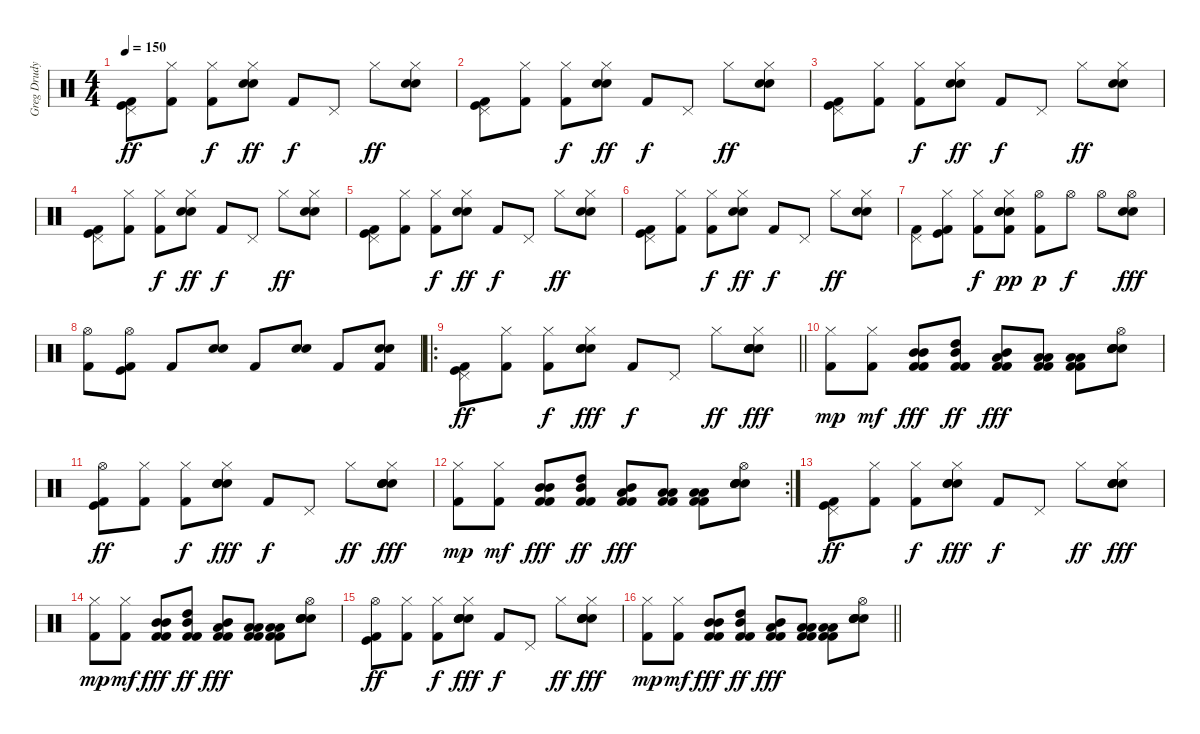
\track ("Greg Drudy" "Greg Drudy") {instrument percussion}
\staff {score}
\articulation defaults
\ts (4 4)
\tempo 150
\clef neutral
\ks c
("Pedal Hi-Hat (hit)" "Kick (hit)" "Kick (hit) 2").8{dy ff} ("Hi-Hat (closed)" "Kick (hit) 2").8 ("Hi-Hat (closed)" "Kick (hit) 2").8{dy f} ("Hi-Hat (closed)" "Snare (hit) 2" "Snare (hit) 2").8{dy ff} "Kick (hit) 2".8{dy f} "Pedal Hi-Hat (hit)".8 "Hi-Hat (closed)".8{dy ff} ("Hi-Hat (closed)" "Snare (hit) 2" "Snare (hit) 2").8 |
("Pedal Hi-Hat (hit)" "Kick (hit)" "Kick (hit) 2").8 ("Hi-Hat (closed)" "Kick (hit) 2").8 ("Hi-Hat (closed)" "Kick (hit) 2").8{dy f} ("Hi-Hat (closed)" "Snare (hit) 2" "Snare (hit) 2").8{dy ff} "Kick (hit) 2".8{dy f} "Pedal Hi-Hat (hit)".8 "Hi-Hat (closed)".8{dy ff} ("Hi-Hat (closed)" "Snare (hit) 2" "Snare (hit) 2").8 |
("Pedal Hi-Hat (hit)" "Kick (hit)" "Kick (hit) 2").8 ("Hi-Hat (closed)" "Kick (hit) 2").8 ("Hi-Hat (closed)" "Kick (hit) 2").8{dy f} ("Hi-Hat (closed)" "Snare (hit) 2" "Snare (hit) 2").8{dy ff} "Kick (hit) 2".8{dy f} "Pedal Hi-Hat (hit)".8 "Hi-Hat (closed)".8{dy ff} ("Hi-Hat (closed)" "Snare (hit) 2" "Snare (hit) 2").8 |
("Pedal Hi-Hat (hit)" "Kick (hit)" "Kick (hit) 2").8 ("Hi-Hat (closed)" "Kick (hit) 2").8 ("Hi-Hat (closed)" "Kick (hit) 2").8{dy f} ("Hi-Hat (closed)" "Snare (hit) 2" "Snare (hit) 2").8{dy ff} "Kick (hit) 2".8{dy f} "Pedal Hi-Hat (hit)".8 "Hi-Hat (closed)".8{dy ff} ("Hi-Hat (closed)" "Snare (hit) 2" "Snare (hit) 2").8 |
("Pedal Hi-Hat (hit)" "Kick (hit)" "Kick (hit) 2").8 ("Hi-Hat (closed)" "Kick (hit) 2").8 ("Hi-Hat (closed)" "Kick (hit) 2").8{dy f} ("Hi-Hat (closed)" "Snare (hit) 2" "Snare (hit) 2").8{dy ff} "Kick (hit) 2".8{dy f} "Pedal Hi-Hat (hit)".8 "Hi-Hat (closed)".8{dy ff} ("Hi-Hat (closed)" "Snare (hit) 2" "Snare (hit) 2").8 |
("Pedal Hi-Hat (hit)" "Kick (hit)" "Kick (hit) 2").8 ("Hi-Hat (closed)" "Kick (hit) 2").8 ("Hi-Hat (closed)" "Kick (hit) 2").8{dy f} ("Hi-Hat (closed)" "Snare (hit) 2" "Snare (hit) 2").8{dy ff} "Kick (hit) 2".8{dy f} "Pedal Hi-Hat (hit)".8 "Hi-Hat (closed)".8{dy ff} ("Hi-Hat (closed)" "Snare (hit) 2" "Snare (hit) 2").8 |
("Pedal Hi-Hat (hit)" "Kick (hit) 2").8 ("Hi-Hat (closed)" "Kick (hit)" "Kick (hit) 2").8 ("Hi-Hat (closed)" "Kick (hit) 2").8{dy f} ("Hi-Hat (closed)" "Snare (hit) 2" "Snare (hit) 2" "Electric Snare (hit)" "Kick (hit) 2").8{dy pp} ("Hi-Hat (open)" "Kick (hit) 2").8{dy p} "Hi-Hat (open)".8{dy f} "Hi-Hat (open)".8 ("Hi-Hat (open)" "Snare (hit) 2" "Snare (hit) 2").8{dy fff} |
("Hi-Hat (open)" "Kick (hit) 2").8 ("Hi-Hat (open)" "Kick (hit)" "Kick (hit) 2").8 "Kick (hit) 2".8 ("Snare (hit) 2" "Snare (hit) 2").8 "Kick (hit) 2".8 ("Snare (hit) 2" "Snare (hit) 2").8 "Kick (hit) 2".8 ("Snare (hit) 2" "Snare (hit) 2" "Kick (hit) 2").8 |
\ro
\barLineRight lightlight
("Pedal Hi-Hat (hit)" "Kick (hit)" "Kick (hit) 2").8{dy ff} ("Hi-Hat (closed)" "Kick (hit) 2").8 ("Hi-Hat (closed)" "Kick (hit) 2").8{dy f} ("Hi-Hat (closed)" "Snare (hit) 2" "Snare (hit) 2" "Electric Snare (hit)").8{dy fff} "Kick (hit) 2".8{dy f} "Pedal Hi-Hat (hit)".8 "Hi-Hat (closed)".8{dy ff} ("Hi-Hat (closed)" "Snare (hit) 2" "Snare (hit) 2" "Electric Snare (hit)" "Electric Snare (hit)").8{dy fff} |
\section ("" "")
("Hi-Hat (closed)" "Kick (hit) 2").8{dy mp} ("Hi-Hat (closed)" "Kick (hit) 2").8{dy mf} ("Mid Tom (hit)" "Mid Tom (hit)" "Kick (hit) 2" "Kick (hit) 2").8{dy fff} ("High Tom (hit)" "Mid Tom (hit)" "Kick (hit) 2" "Kick (hit) 2").8{dy ff} ("Mid Tom (hit)" "Low Tom (hit)" "Kick (hit) 2" "Kick (hit) 2").8{dy fff} ("Low Tom (hit)" "Low Tom (hit)" "Kick (hit) 2" "Kick (hit) 2").8 ("Low Tom (hit)" "Low Tom (hit)" "Kick (hit) 2" "Kick (hit) 2").8 ("Hi-Hat (open)" "Snare (hit) 2" "Snare (hit) 2" "Electric Snare (hit)" "Electric Snare (hit)").8 |
("Hi-Hat (open)" "Kick (hit)" "Kick (hit) 2").8{dy ff} ("Hi-Hat (closed)" "Kick (hit) 2").8 ("Hi-Hat (closed)" "Kick (hit) 2").8{dy f} ("Hi-Hat (closed)" "Snare (hit) 2" "Snare (hit) 2" "Electric Snare (hit)" "Electric Snare (hit)").8{dy fff} "Kick (hit) 2".8{dy f} "Pedal Hi-Hat (hit)".8 "Hi-Hat (closed)".8{dy ff} ("Hi-Hat (closed)" "Snare (hit) 2" "Snare (hit) 2" "Electric Snare (hit)" "Electric Snare (hit)").8{dy fff} |
\rc 2
("Hi-Hat (closed)" "Kick (hit) 2").8{dy mp} ("Hi-Hat (closed)" "Kick (hit) 2").8{dy mf} ("Mid Tom (hit)" "Mid Tom (hit)" "Kick (hit) 2" "Kick (hit) 2").8{dy fff} ("High Tom (hit)" "Mid Tom (hit)" "Kick (hit) 2" "Kick (hit) 2").8{dy ff} ("Mid Tom (hit)" "Low Tom (hit)" "Kick (hit) 2" "Kick (hit) 2").8{dy fff} ("Low Tom (hit)" "Low Tom (hit)" "Kick (hit) 2" "Kick (hit) 2").8 ("Low Tom (hit)" "Low Tom (hit)" "Kick (hit) 2" "Kick (hit) 2").8 ("Hi-Hat (open)" "Snare (hit) 2" "Snare (hit) 2" "Electric Snare (hit)" "Electric Snare (hit)").8 |
("Pedal Hi-Hat (hit)" "Kick (hit)" "Kick (hit) 2").8{dy ff} ("Hi-Hat (closed)" "Kick (hit) 2").8 ("Hi-Hat (closed)" "Kick (hit) 2").8{dy f} ("Hi-Hat (closed)" "Snare (hit) 2" "Snare (hit) 2" "Electric Snare (hit)").8{dy fff} "Kick (hit) 2".8{dy f} "Pedal Hi-Hat (hit)".8 "Hi-Hat (closed)".8{dy ff} ("Hi-Hat (closed)" "Snare (hit) 2" "Snare (hit) 2" "Electric Snare (hit)" "Electric Snare (hit)").8{dy fff} |
("Hi-Hat (closed)" "Kick (hit) 2").8{dy mp} ("Hi-Hat (closed)" "Kick (hit) 2").8{dy mf} ("Mid Tom (hit)" "Mid Tom (hit)" "Kick (hit) 2" "Kick (hit) 2").8{dy fff} ("High Tom (hit)" "Mid Tom (hit)" "Kick (hit) 2" "Kick (hit) 2").8{dy ff} ("Mid Tom (hit)" "Low Tom (hit)" "Kick (hit) 2" "Kick (hit) 2").8{dy fff} ("Low Tom (hit)" "Low Tom (hit)" "Kick (hit) 2" "Kick (hit) 2").8 ("Low Tom (hit)" "Low Tom (hit)" "Kick (hit) 2" "Kick (hit) 2").8 ("Hi-Hat (open)" "Snare (hit) 2" "Snare (hit) 2" "Electric Snare (hit)" "Electric Snare (hit)").8 |
("Hi-Hat (open)" "Kick (hit)" "Kick (hit) 2").8{dy ff} ("Hi-Hat (closed)" "Kick (hit) 2").8 ("Hi-Hat (closed)" "Kick (hit) 2").8{dy f} ("Hi-Hat (closed)" "Snare (hit) 2" "Snare (hit) 2" "Electric Snare (hit)" "Electric Snare (hit)").8{dy fff} "Kick (hit) 2".8{dy f} "Pedal Hi-Hat (hit)".8 "Hi-Hat (closed)".8{dy ff} ("Hi-Hat (closed)" "Snare (hit) 2" "Snare (hit) 2" "Electric Snare (hit)" "Electric Snare (hit)").8{dy fff} |
\barLineRight lightlight
("Hi-Hat (closed)" "Kick (hit) 2").8{dy mp} ("Hi-Hat (closed)" "Kick (hit) 2").8{dy mf} ("Mid Tom (hit)" "Mid Tom (hit)" "Kick (hit) 2" "Kick (hit) 2").8{dy fff} ("High Tom (hit)" "Mid Tom (hit)" "Kick (hit) 2" "Kick (hit) 2").8{dy ff} ("Mid Tom (hit)" "Low Tom (hit)" "Kick (hit) 2" "Kick (hit) 2").8{dy fff} ("Low Tom (hit)" "Low Tom (hit)" "Kick (hit) 2" "Kick (hit) 2").8 ("Low Tom (hit)" "Low Tom (hit)" "Kick (hit) 2" "Kick (hit) 2").8 ("Hi-Hat (open)" "Snare (hit) 2" "Snare (hit) 2" "Electric Snare (hit)" "Electric Snare (hit)").8
